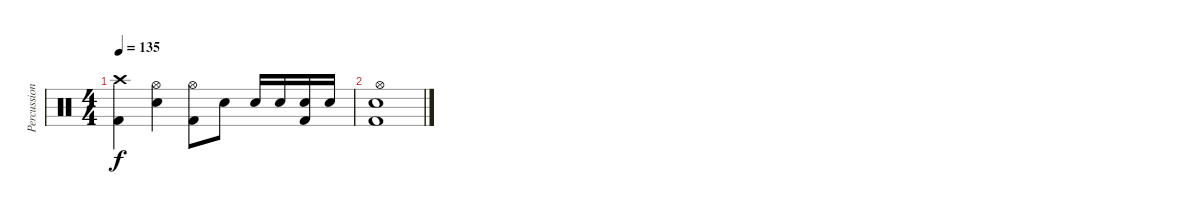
\track ("Percussions" "Percussion") {instrument percussion}
\staff {score}
\articulation defaults
\ts (4 4)
\tempo 135
\clef neutral
\ks c
("Crash high (hit)" "Kick (hit) 2").4{dy f} ("Hi-Hat (open)" "Snare (hit) 2").4 ("Hi-Hat (open)" "Kick (hit) 2").8 "Snare (hit) 2".8 "Snare (hit) 2".16 "Snare (hit) 2".16 ("Snare (hit) 2" "Kick (hit) 2").16 "Snare (hit) 2".16 |
("Hi-Hat (open)" "Snare (hit) 2" "Kick (hit) 2").1
